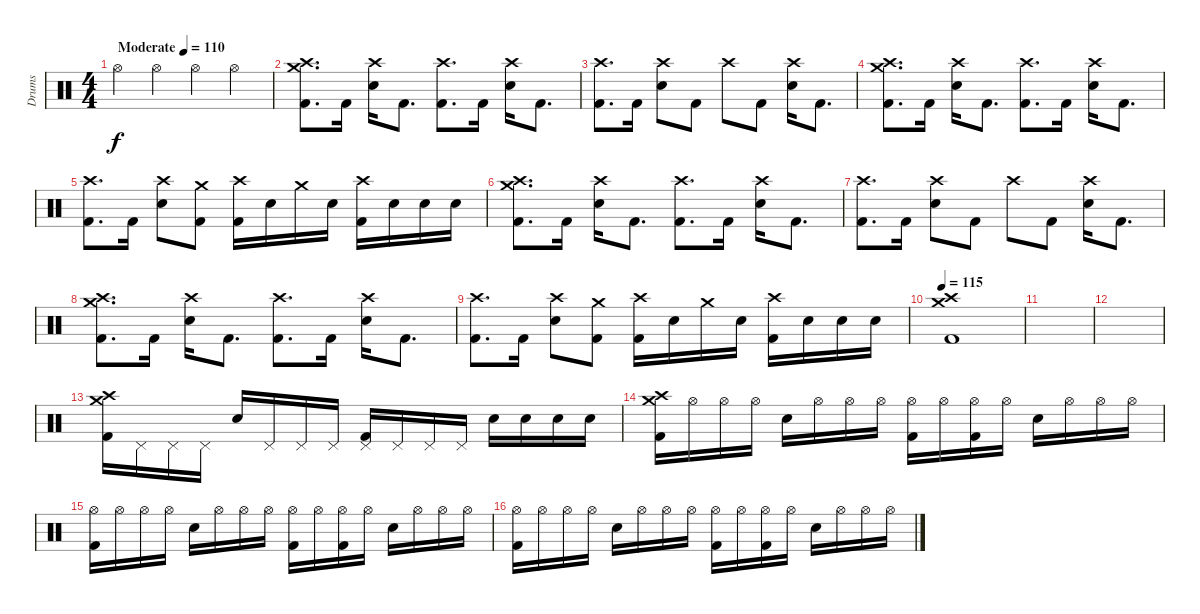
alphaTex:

\track ("Drums" "Drums") {instrument percussion}
\staff {score}
\articulation defaults
\ts (4 4)
\tempo (110 "Moderate")
\clef neutral
\ks c "Hi-Hat (open)".4{dy f} "Hi-Hat (open)".4 "Hi-Hat (open)".4 "Hi-Hat (open)".4
|
("Crash high (hit)" "Crash medium (hit)" "Kick (hit) 2").8{d} "Kick (hit) 2".16 ("Crash high (hit)" "Electric Snare (hit)").16 "Kick (hit) 2".8{d} ("Crash high (hit)" "Kick (hit) 2").8{d} "Kick (hit) 2".16 ("Crash high (hit)" "Electric Snare (hit)").16 "Kick (hit) 2".8{d} |
("Crash high (hit)" "Kick (hit) 2").8{d} "Kick (hit) 2".16 ("Crash high (hit)" "Electric Snare (hit)").8 "Kick (hit) 2".8 "Crash high (hit)".8 "Kick (hit) 2".8 ("Crash high (hit)" "Electric Snare (hit)").16 "Kick (hit) 2".8{d} |
("Crash high (hit)" "Crash medium (hit)" "Kick (hit) 2").8{d} "Kick (hit) 2".16 ("Crash high (hit)" "Electric Snare (hit)").16 "Kick (hit) 2".8{d} ("Crash high (hit)" "Kick (hit) 2").8{d} "Kick (hit) 2".16 ("Crash high (hit)" "Electric Snare (hit)").16 "Kick (hit) 2".8{d} |
("Crash high (hit)" "Kick (hit) 2").8{d} "Kick (hit) 2".16 ("Crash high (hit)" "Electric Snare (hit)").8 ("Crash medium (hit)" "Kick (hit) 2").8 ("Crash high (hit)" "Kick (hit) 2").16 "Electric Snare (hit)".16 "Crash medium (hit)".16 "Electric Snare (hit)".16 ("Crash high (hit)" "Kick (hit) 2").16 "Electric Snare (hit)".16 "Electric Snare (hit)".16 "Electric Snare (hit)".16 |
("Crash high (hit)" "Crash medium (hit)" "Kick (hit) 2").8{d} "Kick (hit) 2".16 ("Crash high (hit)" "Electric Snare (hit)").16 "Kick (hit) 2".8{d} ("Crash high (hit)" "Kick (hit) 2").8{d} "Kick (hit) 2".16 ("Crash high (hit)" "Electric Snare (hit)").16 "Kick (hit) 2".8{d} |
("Crash high (hit)" "Kick (hit) 2").8{d} "Kick (hit) 2".16 ("Crash high (hit)" "Electric Snare (hit)").8 "Kick (hit) 2".8 "Crash high (hit)".8 "Kick (hit) 2".8 ("Crash high (hit)" "Electric Snare (hit)").16 "Kick (hit) 2".8{d} |
("Crash high (hit)" "Crash medium (hit)" "Kick (hit) 2").8{d} "Kick (hit) 2".16 ("Crash high (hit)" "Electric Snare (hit)").16 "Kick (hit) 2".8{d} ("Crash high (hit)" "Kick (hit) 2").8{d} "Kick (hit) 2".16 ("Crash high (hit)" "Electric Snare (hit)").16 "Kick (hit) 2".8{d} |
("Crash high (hit)" "Kick (hit) 2").8{d} "Kick (hit) 2".16 ("Crash high (hit)" "Electric Snare (hit)").8 ("Crash medium (hit)" "Kick (hit) 2").8 ("Crash high (hit)" "Kick (hit) 2").16 "Electric Snare (hit)".16 "Crash medium (hit)".16 "Electric Snare (hit)".16 ("Crash high (hit)" "Kick (hit) 2").16 "Electric Snare (hit)".16 "Electric Snare (hit)".16 "Electric Snare (hit)".16 |
\tempo 115
("Crash high (hit)" "Crash medium (hit)" "Kick (hit) 2").1 |
|
|
("Crash high (hit)" "Crash medium (hit)" "Kick (hit) 2").16 "Pedal Hi-Hat (hit)".16 "Pedal Hi-Hat (hit)".16 "Pedal Hi-Hat (hit)".16 "Electric Snare (hit)".16 "Pedal Hi-Hat (hit)".16 "Pedal Hi-Hat (hit)".16 "Pedal Hi-Hat (hit)".16 ("Pedal Hi-Hat (hit)" "Kick (hit) 2").16 "Pedal Hi-Hat (hit)".16 "Pedal Hi-Hat (hit)".16 "Pedal Hi-Hat (hit)".16 "Electric Snare (hit)".16 "Electric Snare (hit)".16 "Electric Snare (hit)".16 "Electric Snare (hit)".16 |
("Crash high (hit)" "Crash medium (hit)" "Kick (hit) 2").16 "Hi-Hat (open)".16 "Hi-Hat (open)".16 "Hi-Hat (open)".16 "Electric Snare (hit)".16 "Hi-Hat (open)".16 "Hi-Hat (open)".16 "Hi-Hat (open)".16 ("Hi-Hat (open)" "Kick (hit) 2").16 "Hi-Hat (open)".16 ("Hi-Hat (open)" "Kick (hit) 2").16 "Hi-Hat (open)".16 "Electric Snare (hit)".16 "Hi-Hat (open)".16 "Hi-Hat (open)".16 "Hi-Hat (open)".16 |
("Hi-Hat (open)" "Kick (hit) 2").16 "Hi-Hat (open)".16 "Hi-Hat (open)".16 "Hi-Hat (open)".16 "Electric Snare (hit)".16 "Hi-Hat (open)".16 "Hi-Hat (open)".16 "Hi-Hat (open)".16 ("Hi-Hat (open)" "Kick (hit) 2").16 "Hi-Hat (open)".16 ("Hi-Hat (open)" "Kick (hit) 2").16 "Hi-Hat (open)".16 "Electric Snare (hit)".16 "Hi-Hat (open)".16 "Hi-Hat (open)".16 "Hi-Hat (open)".16 |
("Hi-Hat (open)" "Kick (hit) 2").16 "Hi-Hat (open)".16 "Hi-Hat (open)".16 "Hi-Hat (open)".16 "Electric Snare (hit)".16 "Hi-Hat (open)".16 "Hi-Hat (open)".16 "Hi-Hat (open)".16 ("Hi-Hat (open)" "Kick (hit) 2").16 "Hi-Hat (open)".16 ("Hi-Hat (open)" "Kick (hit) 2").16 "Hi-Hat (open)".16 "Electric Snare (hit)".16 "Hi-Hat (open)".16 "Hi-Hat (open)".16 "Hi-Hat (open)".16
